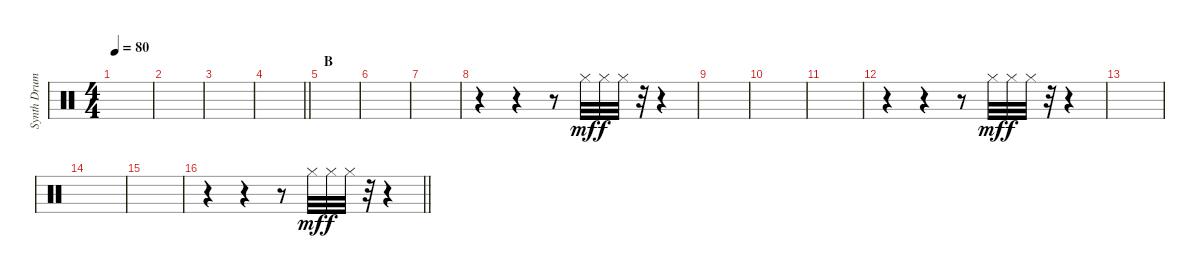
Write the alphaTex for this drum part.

\track ("Synth Drums" "Synth Drum") {instrument percussion}
\staff
\articulation defaults
\ts (4 4)
\tempo 80
\clef neutral
\ks c
|
|
|
\barLineRight lightlight
|
\section ("" "B")
|
|
|
r.4 r.4 r.8 "Hi-Hat (closed)".32{dy mf} "Hi-Hat (closed)".32{dy f} "Hi-Hat (closed)".32 r.32 r.4 |
|
|
|
r.4 r.4 r.8 "Hi-Hat (closed)".32{dy mf} "Hi-Hat (closed)".32{dy f} "Hi-Hat (closed)".32 r.32 r.4 |
|
|
|
\barLineRight lightlight
r.4 r.4 r.8 "Hi-Hat (closed)".32{dy mf} "Hi-Hat (closed)".32{dy f} "Hi-Hat (closed)".32 r.32 r.4
